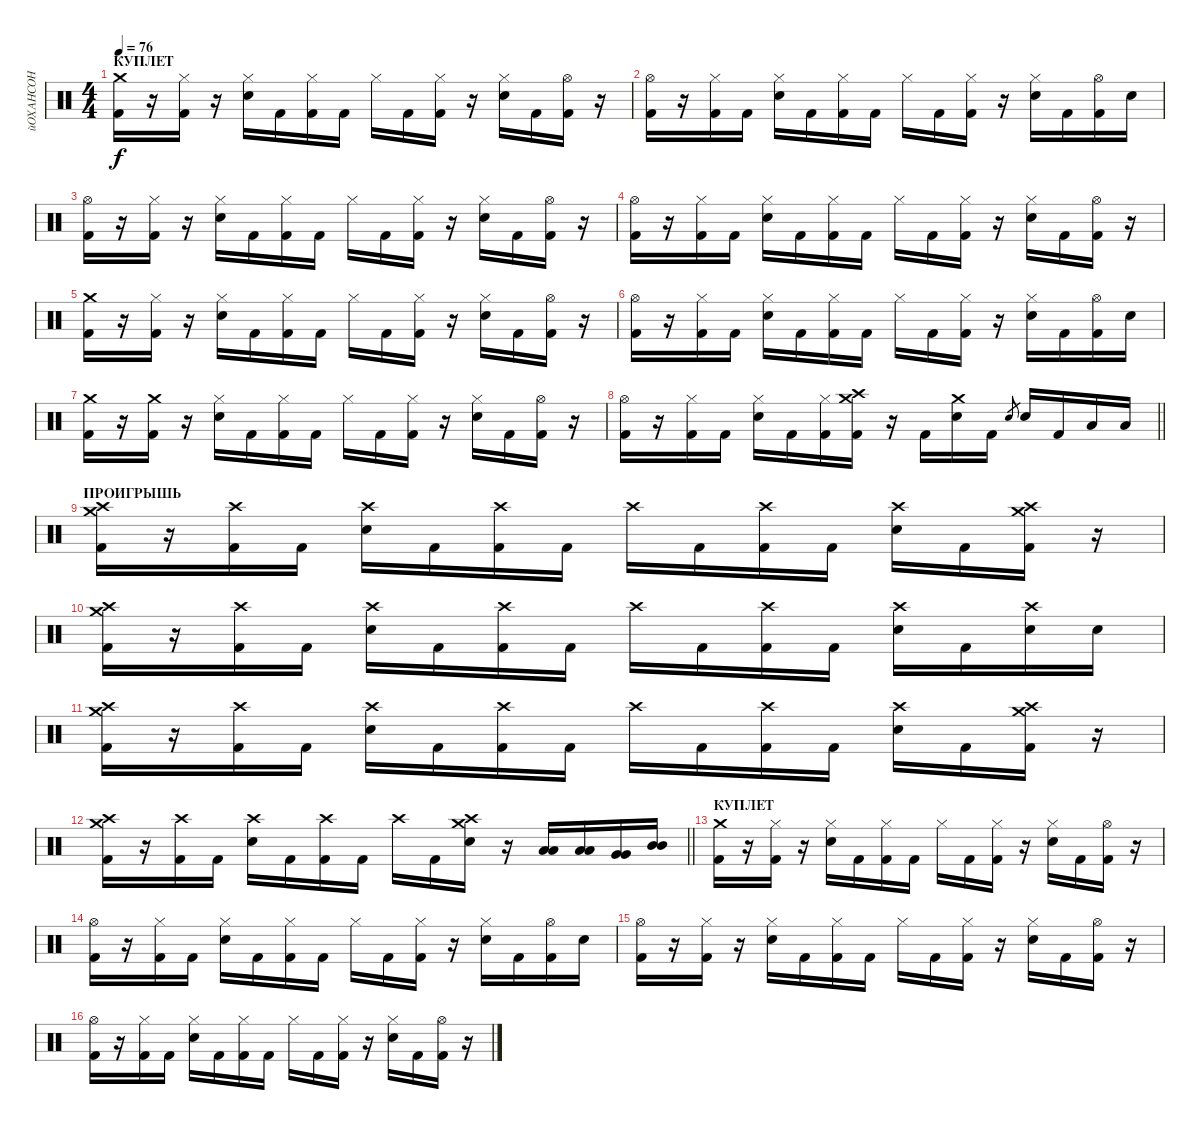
\track ("йОХАНСОН" "йОХАНСОН") {instrument percussion}
\staff {score}
\articulation defaults
\ts (4 4)
\section ("" "КУПЛЕТ")
\tempo 76
\clef neutral
\ks c
("Crash medium (hit)" "Kick (hit) 2").16{dy f} r.16 ("Hi-Hat (closed)" "Kick (hit) 2").16 r.16 ("Hi-Hat (closed)" "Snare (hit) 2").16 "Kick (hit) 2".16 ("Hi-Hat (closed)" "Kick (hit) 2").16 "Kick (hit) 2".16 "Hi-Hat (closed)".16 "Kick (hit) 2".16 ("Hi-Hat (closed)" "Kick (hit) 2").16 r.16 ("Hi-Hat (closed)" "Snare (hit) 2").16 "Kick (hit) 2".16 ("Hi-Hat (open)" "Kick (hit) 2").16 r.16 |
("Hi-Hat (open)" "Kick (hit) 2").16 r.16 ("Hi-Hat (closed)" "Kick (hit) 2").16 "Kick (hit) 2".16 ("Hi-Hat (closed)" "Snare (hit) 2").16 "Kick (hit) 2".16 ("Hi-Hat (closed)" "Kick (hit) 2").16 "Kick (hit) 2".16 "Hi-Hat (closed)".16 "Kick (hit) 2".16 ("Hi-Hat (closed)" "Kick (hit) 2").16 r.16 ("Hi-Hat (closed)" "Snare (hit) 2").16 "Kick (hit) 2".16 ("Hi-Hat (open)" "Kick (hit) 2").16 "Snare (hit) 2".16 |
("Hi-Hat (open)" "Kick (hit) 2").16 r.16 ("Hi-Hat (closed)" "Kick (hit) 2").16 r.16 ("Hi-Hat (closed)" "Snare (hit) 2").16 "Kick (hit) 2".16 ("Hi-Hat (closed)" "Kick (hit) 2").16 "Kick (hit) 2".16 "Hi-Hat (closed)".16 "Kick (hit) 2".16 ("Hi-Hat (closed)" "Kick (hit) 2").16 r.16 ("Hi-Hat (closed)" "Snare (hit) 2").16 "Kick (hit) 2".16 ("Hi-Hat (open)" "Kick (hit) 2").16 r.16 |
("Hi-Hat (open)" "Kick (hit) 2").16 r.16 ("Hi-Hat (closed)" "Kick (hit) 2").16 "Kick (hit) 2".16 ("Hi-Hat (closed)" "Snare (hit) 2").16 "Kick (hit) 2".16 ("Hi-Hat (closed)" "Kick (hit) 2").16 "Kick (hit) 2".16 "Hi-Hat (closed)".16 "Kick (hit) 2".16 ("Hi-Hat (closed)" "Kick (hit) 2").16 r.16 ("Hi-Hat (closed)" "Snare (hit) 2").16 "Kick (hit) 2".16 ("Hi-Hat (open)" "Kick (hit) 2").16 r.16 |
("Crash medium (hit)" "Kick (hit) 2").16 r.16 ("Hi-Hat (closed)" "Kick (hit) 2").16 r.16 ("Hi-Hat (closed)" "Snare (hit) 2").16 "Kick (hit) 2".16 ("Hi-Hat (closed)" "Kick (hit) 2").16 "Kick (hit) 2".16 "Hi-Hat (closed)".16 "Kick (hit) 2".16 ("Hi-Hat (closed)" "Kick (hit) 2").16 r.16 ("Hi-Hat (closed)" "Snare (hit) 2").16 "Kick (hit) 2".16 ("Hi-Hat (open)" "Kick (hit) 2").16 r.16 |
("Hi-Hat (open)" "Kick (hit) 2").16 r.16 ("Hi-Hat (closed)" "Kick (hit) 2").16 "Kick (hit) 2".16 ("Hi-Hat (closed)" "Snare (hit) 2").16 "Kick (hit) 2".16 ("Hi-Hat (closed)" "Kick (hit) 2").16 "Kick (hit) 2".16 "Hi-Hat (closed)".16 "Kick (hit) 2".16 ("Hi-Hat (closed)" "Kick (hit) 2").16 r.16 ("Hi-Hat (closed)" "Snare (hit) 2").16 "Kick (hit) 2".16 ("Hi-Hat (open)" "Kick (hit) 2").16 "Snare (hit) 2".16 |
("Crash medium (hit)" "Kick (hit) 2").16 r.16 ("Crash medium (hit)" "Kick (hit) 2").16 r.16 ("Hi-Hat (closed)" "Snare (hit) 2").16 "Kick (hit) 2".16 ("Hi-Hat (closed)" "Kick (hit) 2").16 "Kick (hit) 2".16 "Hi-Hat (closed)".16 "Kick (hit) 2".16 ("Hi-Hat (closed)" "Kick (hit) 2").16 r.16 ("Hi-Hat (closed)" "Snare (hit) 2").16 "Kick (hit) 2".16 ("Hi-Hat (open)" "Kick (hit) 2").16 r.16 |
\barLineRight lightlight
("Hi-Hat (open)" "Kick (hit) 2").16 r.16 ("Hi-Hat (closed)" "Kick (hit) 2").16 "Kick (hit) 2".16 ("Hi-Hat (closed)" "Snare (hit) 2").16 "Kick (hit) 2".16 ("Hi-Hat (closed)" "Kick (hit) 2").16 ("Crash high (hit)" "Crash medium (hit)" "Kick (hit) 2").16 r.16 "Kick (hit) 2".16 ("Crash medium (hit)" "Snare (hit) 2").16 "Kick (hit) 2".16 "Snare (hit) 2".8{gr} "Snare (hit) 2".16 "Kick (hit) 2".16 "Low Floor Tom (hit)".16 "Low Floor Tom (hit)".16 |
\section ("" "ПРОИГРЫШЬ")
("Crash high (hit)" "Crash medium (hit)" "Kick (hit) 2").16 r.16 ("Crash high (hit)" "Kick (hit) 2").16 "Kick (hit) 2".16 ("Crash high (hit)" "Snare (hit) 2").16 "Kick (hit) 2".16 ("Crash high (hit)" "Kick (hit) 2").16 "Kick (hit) 2".16 "Crash high (hit)".16 "Kick (hit) 2".16 ("Crash high (hit)" "Kick (hit) 2").16 "Kick (hit) 2".16 ("Crash high (hit)" "Snare (hit) 2").16 "Kick (hit) 2".16 ("Crash high (hit)" "Crash medium (hit)" "Kick (hit) 2").16 r.16 |
("Crash high (hit)" "Crash medium (hit)" "Kick (hit) 2").16 r.16 ("Crash high (hit)" "Kick (hit) 2").16 "Kick (hit) 2".16 ("Crash high (hit)" "Snare (hit) 2").16 "Kick (hit) 2".16 ("Crash high (hit)" "Kick (hit) 2").16 "Kick (hit) 2".16 "Crash high (hit)".16 "Kick (hit) 2".16 ("Crash high (hit)" "Kick (hit) 2").16 "Kick (hit) 2".16 ("Crash high (hit)" "Snare (hit) 2").16 "Kick (hit) 2".16 ("Crash high (hit)" "Snare (hit) 2").16 "Snare (hit) 2".16 |
("Crash high (hit)" "Crash medium (hit)" "Kick (hit) 2").16 r.16 ("Crash high (hit)" "Kick (hit) 2").16 "Kick (hit) 2".16 ("Crash high (hit)" "Snare (hit) 2").16 "Kick (hit) 2".16 ("Crash high (hit)" "Kick (hit) 2").16 "Kick (hit) 2".16 "Crash high (hit)".16 "Kick (hit) 2".16 ("Crash high (hit)" "Kick (hit) 2").16 "Kick (hit) 2".16 ("Crash high (hit)" "Snare (hit) 2").16 "Kick (hit) 2".16 ("Crash high (hit)" "Crash medium (hit)" "Kick (hit) 2").16 r.16 |
\barLineRight lightlight
("Crash high (hit)" "Crash medium (hit)" "Kick (hit) 2").16 r.16 ("Crash high (hit)" "Kick (hit) 2").16 "Kick (hit) 2".16 ("Crash high (hit)" "Snare (hit) 2").16 "Kick (hit) 2".16 ("Crash high (hit)" "Kick (hit) 2").16 "Kick (hit) 2".16 "Crash high (hit)".16 "Kick (hit) 2".16 ("Crash high (hit)" "Crash medium (hit)" "Snare (hit) 2").16 r.16 ("Low Floor Tom (hit)" "Low Floor Tom (hit)").16 ("Low Floor Tom (hit)" "Low Floor Tom (hit)").16 ("Very Low Tom (hit)" "Very Low Tom (hit)").16 ("Mid Tom (hit)" "Mid Tom (hit)").16 |
\section ("" "КУПЛЕТ")
("Crash medium (hit)" "Kick (hit) 2").16 r.16 ("Hi-Hat (closed)" "Kick (hit) 2").16 r.16 ("Hi-Hat (closed)" "Snare (hit) 2").16 "Kick (hit) 2".16 ("Hi-Hat (closed)" "Kick (hit) 2").16 "Kick (hit) 2".16 "Hi-Hat (closed)".16 "Kick (hit) 2".16 ("Hi-Hat (closed)" "Kick (hit) 2").16 r.16 ("Hi-Hat (closed)" "Snare (hit) 2").16 "Kick (hit) 2".16 ("Hi-Hat (open)" "Kick (hit) 2").16 r.16 |
("Hi-Hat (open)" "Kick (hit) 2").16 r.16 ("Hi-Hat (closed)" "Kick (hit) 2").16 "Kick (hit) 2".16 ("Hi-Hat (closed)" "Snare (hit) 2").16 "Kick (hit) 2".16 ("Hi-Hat (closed)" "Kick (hit) 2").16 "Kick (hit) 2".16 "Hi-Hat (closed)".16 "Kick (hit) 2".16 ("Hi-Hat (closed)" "Kick (hit) 2").16 r.16 ("Hi-Hat (closed)" "Snare (hit) 2").16 "Kick (hit) 2".16 ("Hi-Hat (open)" "Kick (hit) 2").16 "Snare (hit) 2".16 |
("Hi-Hat (open)" "Kick (hit) 2").16 r.16 ("Hi-Hat (closed)" "Kick (hit) 2").16 r.16 ("Hi-Hat (closed)" "Snare (hit) 2").16 "Kick (hit) 2".16 ("Hi-Hat (closed)" "Kick (hit) 2").16 "Kick (hit) 2".16 "Hi-Hat (closed)".16 "Kick (hit) 2".16 ("Hi-Hat (closed)" "Kick (hit) 2").16 r.16 ("Hi-Hat (closed)" "Snare (hit) 2").16 "Kick (hit) 2".16 ("Hi-Hat (open)" "Kick (hit) 2").16 r.16 |
("Hi-Hat (open)" "Kick (hit) 2").16 r.16 ("Hi-Hat (closed)" "Kick (hit) 2").16 "Kick (hit) 2".16 ("Hi-Hat (closed)" "Snare (hit) 2").16 "Kick (hit) 2".16 ("Hi-Hat (closed)" "Kick (hit) 2").16 "Kick (hit) 2".16 "Hi-Hat (closed)".16 "Kick (hit) 2".16 ("Hi-Hat (closed)" "Kick (hit) 2").16 r.16 ("Hi-Hat (closed)" "Snare (hit) 2").16 "Kick (hit) 2".16 ("Hi-Hat (open)" "Kick (hit) 2").16 r.16
